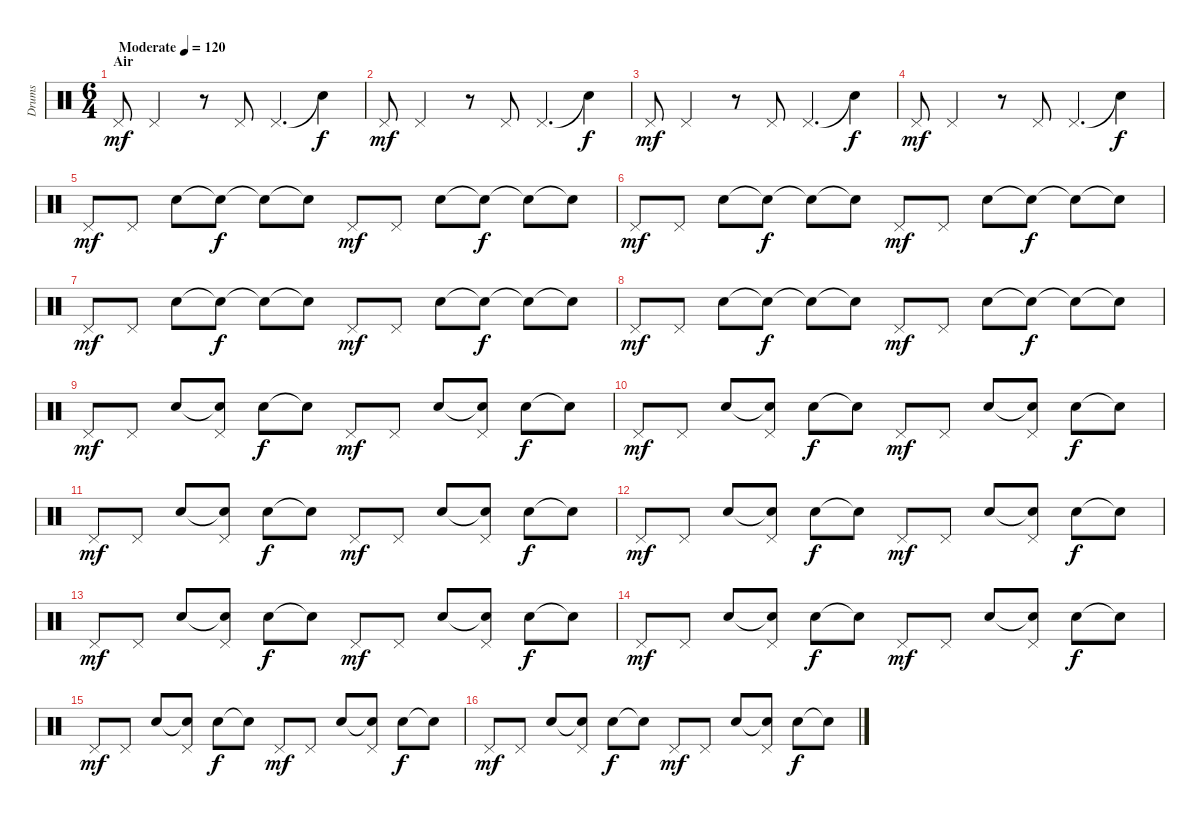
\track ("Drums" "Drums") {instrument percussion}
\staff {score}
\articulation defaults
\ts (6 4)
\section ("" "Air")
\tempo (120 "Moderate")
\clef neutral
\ks c "Pedal Hi-Hat (hit)".8{dy mf} "Pedal Hi-Hat (hit)".2
r.8 "Pedal Hi-Hat (hit)".8 "Pedal Hi-Hat (hit)".4{d} "Snare (hit)"{t}.4{dy f} |
"Pedal Hi-Hat (hit)".8{dy mf} "Pedal Hi-Hat (hit)".2 r.8 "Pedal Hi-Hat (hit)".8 "Pedal Hi-Hat (hit)".4{d} "Snare (hit)"{t}.4{dy f} |
"Pedal Hi-Hat (hit)".8{dy mf} "Pedal Hi-Hat (hit)".2 r.8 "Pedal Hi-Hat (hit)".8 "Pedal Hi-Hat (hit)".4{d} "Snare (hit)"{t}.4{dy f} |
"Pedal Hi-Hat (hit)".8{dy mf} "Pedal Hi-Hat (hit)".2 r.8 "Pedal Hi-Hat (hit)".8 "Pedal Hi-Hat (hit)".4{d} "Snare (hit)"{t}.4{dy f} |
"Pedal Hi-Hat (hit)".8{dy mf} "Pedal Hi-Hat (hit)".8 "Snare (hit) 2".8 "Snare (hit)"{t}.8{dy f} "Snare (hit)"{t}.8 "Snare (hit)"{t}.8 "Pedal Hi-Hat (hit)".8{dy mf} "Pedal Hi-Hat (hit)".8 "Snare (hit) 2".8 "Snare (hit)"{t}.8{dy f} "Snare (hit)"{t}.8 "Snare (hit)"{t}.8 |
"Pedal Hi-Hat (hit)".8{dy mf} "Pedal Hi-Hat (hit)".8 "Snare (hit) 2".8 "Snare (hit)"{t}.8{dy f} "Snare (hit)"{t}.8 "Snare (hit)"{t}.8 "Pedal Hi-Hat (hit)".8{dy mf} "Pedal Hi-Hat (hit)".8 "Snare (hit) 2".8 "Snare (hit)"{t}.8{dy f} "Snare (hit)"{t}.8 "Snare (hit)"{t}.8 |
"Pedal Hi-Hat (hit)".8{dy mf} "Pedal Hi-Hat (hit)".8 "Snare (hit) 2".8 "Snare (hit)"{t}.8{dy f} "Snare (hit)"{t}.8 "Snare (hit)"{t}.8 "Pedal Hi-Hat (hit)".8{dy mf} "Pedal Hi-Hat (hit)".8 "Snare (hit) 2".8 "Snare (hit)"{t}.8{dy f} "Snare (hit)"{t}.8 "Snare (hit)"{t}.8 |
"Pedal Hi-Hat (hit)".8{dy mf} "Pedal Hi-Hat (hit)".8 "Snare (hit) 2".8 "Snare (hit)"{t}.8{dy f} "Snare (hit)"{t}.8 "Snare (hit)"{t}.8 "Pedal Hi-Hat (hit)".8{dy mf} "Pedal Hi-Hat (hit)".8 "Snare (hit) 2".8 "Snare (hit)"{t}.8{dy f} "Snare (hit)"{t}.8 "Snare (hit)"{t}.8 |
"Pedal Hi-Hat (hit)".8{dy mf} "Pedal Hi-Hat (hit)".8 "Snare (hit) 2".8 ("Snare (hit)"{t} "Pedal Hi-Hat (hit)").8 "Snare (hit) 2".8{dy f} "Snare (hit)"{t}.8 "Pedal Hi-Hat (hit)".8{dy mf} "Pedal Hi-Hat (hit)".8 "Snare (hit) 2".8 ("Snare (hit)"{t} "Pedal Hi-Hat (hit)").8 "Snare (hit) 2".8{dy f} "Snare (hit)"{t}.8 |
"Pedal Hi-Hat (hit)".8{dy mf} "Pedal Hi-Hat (hit)".8 "Snare (hit) 2".8 ("Snare (hit)"{t} "Pedal Hi-Hat (hit)").8 "Snare (hit) 2".8{dy f} "Snare (hit)"{t}.8 "Pedal Hi-Hat (hit)".8{dy mf} "Pedal Hi-Hat (hit)".8 "Snare (hit) 2".8 ("Snare (hit)"{t} "Pedal Hi-Hat (hit)").8 "Snare (hit) 2".8{dy f} "Snare (hit)"{t}.8 |
"Pedal Hi-Hat (hit)".8{dy mf} "Pedal Hi-Hat (hit)".8 "Snare (hit) 2".8 ("Snare (hit)"{t} "Pedal Hi-Hat (hit)").8 "Snare (hit) 2".8{dy f} "Snare (hit)"{t}.8 "Pedal Hi-Hat (hit)".8{dy mf} "Pedal Hi-Hat (hit)".8 "Snare (hit) 2".8 ("Snare (hit)"{t} "Pedal Hi-Hat (hit)").8 "Snare (hit) 2".8{dy f} "Snare (hit)"{t}.8 |
"Pedal Hi-Hat (hit)".8{dy mf} "Pedal Hi-Hat (hit)".8 "Snare (hit) 2".8 ("Snare (hit)"{t} "Pedal Hi-Hat (hit)").8 "Snare (hit) 2".8{dy f} "Snare (hit)"{t}.8 "Pedal Hi-Hat (hit)".8{dy mf} "Pedal Hi-Hat (hit)".8 "Snare (hit) 2".8 ("Snare (hit)"{t} "Pedal Hi-Hat (hit)").8 "Snare (hit) 2".8{dy f} "Snare (hit)"{t}.8 |
"Pedal Hi-Hat (hit)".8{dy mf} "Pedal Hi-Hat (hit)".8 "Snare (hit) 2".8 ("Snare (hit)"{t} "Pedal Hi-Hat (hit)").8 "Snare (hit) 2".8{dy f} "Snare (hit)"{t}.8 "Pedal Hi-Hat (hit)".8{dy mf} "Pedal Hi-Hat (hit)".8 "Snare (hit) 2".8 ("Snare (hit)"{t} "Pedal Hi-Hat (hit)").8 "Snare (hit) 2".8{dy f} "Snare (hit)"{t}.8 |
"Pedal Hi-Hat (hit)".8{dy mf} "Pedal Hi-Hat (hit)".8 "Snare (hit) 2".8 ("Snare (hit)"{t} "Pedal Hi-Hat (hit)").8 "Snare (hit) 2".8{dy f} "Snare (hit)"{t}.8 "Pedal Hi-Hat (hit)".8{dy mf} "Pedal Hi-Hat (hit)".8 "Snare (hit) 2".8 ("Snare (hit)"{t} "Pedal Hi-Hat (hit)").8 "Snare (hit) 2".8{dy f} "Snare (hit)"{t}.8 |
"Pedal Hi-Hat (hit)".8{dy mf} "Pedal Hi-Hat (hit)".8 "Snare (hit) 2".8 ("Snare (hit)"{t} "Pedal Hi-Hat (hit)").8 "Snare (hit) 2".8{dy f} "Snare (hit)"{t}.8 "Pedal Hi-Hat (hit)".8{dy mf} "Pedal Hi-Hat (hit)".8 "Snare (hit) 2".8 ("Snare (hit)"{t} "Pedal Hi-Hat (hit)").8 "Snare (hit) 2".8{dy f} "Snare (hit)"{t}.8 |
"Pedal Hi-Hat (hit)".8{dy mf} "Pedal Hi-Hat (hit)".8 "Snare (hit) 2".8 ("Snare (hit)"{t} "Pedal Hi-Hat (hit)").8 "Snare (hit) 2".8{dy f} "Snare (hit)"{t}.8 "Pedal Hi-Hat (hit)".8{dy mf} "Pedal Hi-Hat (hit)".8 "Snare (hit) 2".8 ("Snare (hit)"{t} "Pedal Hi-Hat (hit)").8 "Snare (hit) 2".8{dy f} "Snare (hit)"{t}.8
